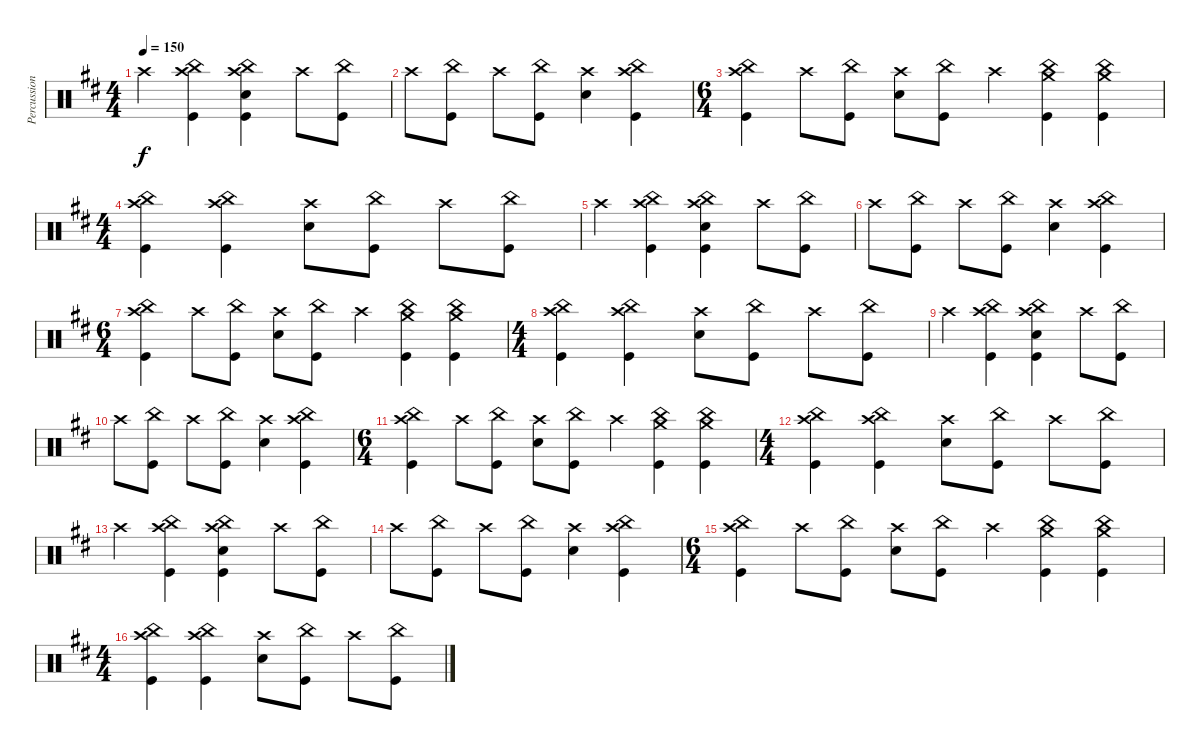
\track ("Percussion" "Percussion") {instrument percussion}
\staff {score}
\articulation defaults
\ts (4 4)
\tempo 150
\clef neutral
\ks bminor "Crash high (hit)".4{dy f}
("Crash high (hit)" "China (hit)" "Kick (hit)").4 ("Crash high (hit)" "China (hit)" "Electric Snare (hit)" "Kick (hit)").4 "Crash high (hit)".8 ("China (hit)" "Kick (hit)").8 |
"Crash high (hit)".8 ("China (hit)" "Kick (hit)").8 "Crash high (hit)".8 ("China (hit)" "Kick (hit)").8 ("Crash high (hit)" "Electric Snare (hit)").4 ("Crash high (hit)" "China (hit)" "Kick (hit)").4 |
\ts (6 4)
("Crash high (hit)" "China (hit)" "Kick (hit)").4 "Crash high (hit)".8 ("China (hit)" "Kick (hit)").8 ("Crash high (hit)" "Electric Snare (hit)").8 ("China (hit)" "Kick (hit)").8 "Crash high (hit)".4 ("Crash medium (hit)" "China (hit)" "Kick (hit)").4 ("Crash medium (hit)" "China (hit)" "Kick (hit)").4 |
\ts (4 4)
("Crash high (hit)" "China (hit)" "Kick (hit)").4 ("Crash high (hit)" "China (hit)" "Kick (hit)").4 ("Crash high (hit)" "Electric Snare (hit)").8 ("China (hit)" "Kick (hit)").8 "Crash high (hit)".8 ("China (hit)" "Kick (hit)").8 |
"Crash high (hit)".4 ("Crash high (hit)" "China (hit)" "Kick (hit)").4 ("Crash high (hit)" "China (hit)" "Electric Snare (hit)" "Kick (hit)").4 "Crash high (hit)".8 ("China (hit)" "Kick (hit)").8 |
"Crash high (hit)".8 ("China (hit)" "Kick (hit)").8 "Crash high (hit)".8 ("China (hit)" "Kick (hit)").8 ("Crash high (hit)" "Electric Snare (hit)").4 ("Crash high (hit)" "China (hit)" "Kick (hit)").4 |
\ts (6 4)
("Crash high (hit)" "China (hit)" "Kick (hit)").4 "Crash high (hit)".8 ("China (hit)" "Kick (hit)").8 ("Crash high (hit)" "Electric Snare (hit)").8 ("China (hit)" "Kick (hit)").8 "Crash high (hit)".4 ("Crash medium (hit)" "China (hit)" "Kick (hit)").4 ("Crash medium (hit)" "China (hit)" "Kick (hit)").4 |
\ts (4 4)
("Crash high (hit)" "China (hit)" "Kick (hit)").4 ("Crash high (hit)" "China (hit)" "Kick (hit)").4 ("Crash high (hit)" "Electric Snare (hit)").8 ("China (hit)" "Kick (hit)").8 "Crash high (hit)".8 ("China (hit)" "Kick (hit)").8 |
"Crash high (hit)".4 ("Crash high (hit)" "China (hit)" "Kick (hit)").4 ("Crash high (hit)" "China (hit)" "Electric Snare (hit)" "Kick (hit)").4 "Crash high (hit)".8 ("China (hit)" "Kick (hit)").8 |
"Crash high (hit)".8 ("China (hit)" "Kick (hit)").8 "Crash high (hit)".8 ("China (hit)" "Kick (hit)").8 ("Crash high (hit)" "Electric Snare (hit)").4 ("Crash high (hit)" "China (hit)" "Kick (hit)").4 |
\ts (6 4)
("Crash high (hit)" "China (hit)" "Kick (hit)").4 "Crash high (hit)".8 ("China (hit)" "Kick (hit)").8 ("Crash high (hit)" "Electric Snare (hit)").8 ("China (hit)" "Kick (hit)").8 "Crash high (hit)".4 ("Crash medium (hit)" "China (hit)" "Kick (hit)").4 ("Crash medium (hit)" "China (hit)" "Kick (hit)").4 |
\ts (4 4)
("Crash high (hit)" "China (hit)" "Kick (hit)").4 ("Crash high (hit)" "China (hit)" "Kick (hit)").4 ("Crash high (hit)" "Electric Snare (hit)").8 ("China (hit)" "Kick (hit)").8 "Crash high (hit)".8 ("China (hit)" "Kick (hit)").8 |
"Crash high (hit)".4 ("Crash high (hit)" "China (hit)" "Kick (hit)").4 ("Crash high (hit)" "China (hit)" "Electric Snare (hit)" "Kick (hit)").4 "Crash high (hit)".8 ("China (hit)" "Kick (hit)").8 |
"Crash high (hit)".8 ("China (hit)" "Kick (hit)").8 "Crash high (hit)".8 ("China (hit)" "Kick (hit)").8 ("Crash high (hit)" "Electric Snare (hit)").4 ("Crash high (hit)" "China (hit)" "Kick (hit)").4 |
\ts (6 4)
("Crash high (hit)" "China (hit)" "Kick (hit)").4 "Crash high (hit)".8 ("China (hit)" "Kick (hit)").8 ("Crash high (hit)" "Electric Snare (hit)").8 ("China (hit)" "Kick (hit)").8 "Crash high (hit)".4 ("Crash medium (hit)" "China (hit)" "Kick (hit)").4 ("Crash medium (hit)" "China (hit)" "Kick (hit)").4 |
\ts (4 4)
("Crash high (hit)" "China (hit)" "Kick (hit)").4 ("Crash high (hit)" "China (hit)" "Kick (hit)").4 ("Crash high (hit)" "Electric Snare (hit)").8 ("China (hit)" "Kick (hit)").8 "Crash high (hit)".8 ("China (hit)" "Kick (hit)").8
